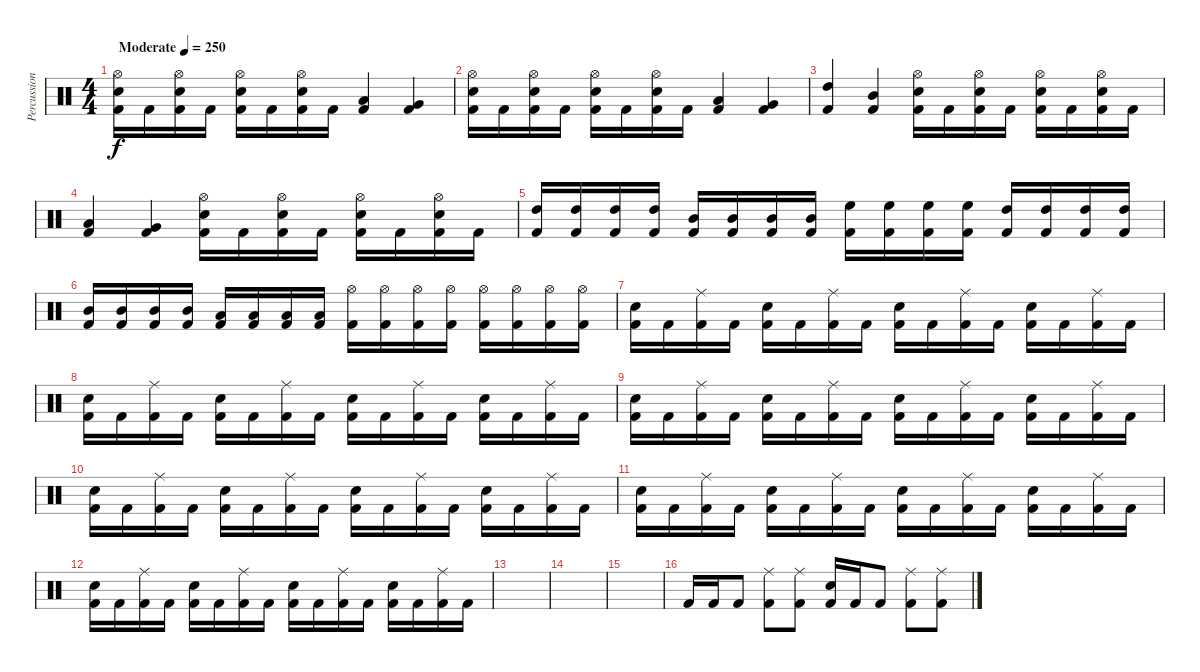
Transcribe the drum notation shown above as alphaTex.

\track ("Percussion" "Percussion") {instrument percussion}
\staff {score}
\articulation defaults
\ts (4 4)
\tempo (250 "Moderate")
\clef neutral
\ks c
("Hi-Hat (open)" "Electric Snare (hit)" "Kick (hit) 2").16{dy f} "Kick (hit) 2".16 ("Hi-Hat (open)" "Electric Snare (hit)" "Kick (hit) 2").16 "Kick (hit) 2".16 ("Hi-Hat (open)" "Electric Snare (hit)" "Kick (hit) 2").16 "Kick (hit) 2".16 ("Hi-Hat (open)" "Electric Snare (hit)" "Kick (hit) 2").16 "Kick (hit) 2".16 ("Low Tom (hit)" "Kick (hit) 2").4 ("Very Low Tom (hit)" "Kick (hit) 2").4 |
("Hi-Hat (open)" "Electric Snare (hit)" "Kick (hit) 2").16 "Kick (hit) 2".16 ("Hi-Hat (open)" "Electric Snare (hit)" "Kick (hit) 2").16 "Kick (hit) 2".16 ("Hi-Hat (open)" "Electric Snare (hit)" "Kick (hit) 2").16 "Kick (hit) 2".16 ("Hi-Hat (open)" "Electric Snare (hit)" "Kick (hit) 2").16 "Kick (hit) 2".16 ("Low Tom (hit)" "Kick (hit) 2").4 ("Very Low Tom (hit)" "Kick (hit) 2").4 |
("High Tom (hit)" "Kick (hit) 2").4 ("Mid Tom (hit)" "Kick (hit) 2").4 ("Hi-Hat (open)" "Electric Snare (hit)" "Kick (hit) 2").16 "Kick (hit) 2".16 ("Hi-Hat (open)" "Electric Snare (hit)" "Kick (hit) 2").16 "Kick (hit) 2".16 ("Hi-Hat (open)" "Electric Snare (hit)" "Kick (hit) 2").16 "Kick (hit) 2".16 ("Hi-Hat (open)" "Electric Snare (hit)" "Kick (hit) 2").16 "Kick (hit) 2".16 |
("Low Tom (hit)" "Kick (hit) 2").4 ("Very Low Tom (hit)" "Kick (hit) 2").4 ("Hi-Hat (open)" "Electric Snare (hit)" "Kick (hit) 2").16 "Kick (hit) 2".16 ("Hi-Hat (open)" "Electric Snare (hit)" "Kick (hit) 2").16 "Kick (hit) 2".16 ("Hi-Hat (open)" "Electric Snare (hit)" "Kick (hit) 2").16 "Kick (hit) 2".16 ("Hi-Hat (open)" "Electric Snare (hit)" "Kick (hit) 2").16 "Kick (hit) 2".16 |
("High Tom (hit)" "Kick (hit) 2").16 ("High Tom (hit)" "Kick (hit) 2").16 ("High Tom (hit)" "Kick (hit) 2").16 ("High Tom (hit)" "Kick (hit) 2").16 ("Mid Tom (hit)" "Kick (hit) 2").16 ("Mid Tom (hit)" "Kick (hit) 2").16 ("Mid Tom (hit)" "Kick (hit) 2").16 ("Mid Tom (hit)" "Kick (hit) 2").16 ("High Floor Tom (hit)" "Kick (hit) 2").16 ("High Floor Tom (hit)" "Kick (hit) 2").16 ("High Floor Tom (hit)" "Kick (hit) 2").16 ("High Floor Tom (hit)" "Kick (hit) 2").16 ("High Tom (hit)" "Kick (hit) 2").16 ("High Tom (hit)" "Kick (hit) 2").16 ("High Tom (hit)" "Kick (hit) 2").16 ("High Tom (hit)" "Kick (hit) 2").16 |
("Mid Tom (hit)" "Kick (hit) 2").16 ("Mid Tom (hit)" "Kick (hit) 2").16 ("Mid Tom (hit)" "Kick (hit) 2").16 ("Mid Tom (hit)" "Kick (hit) 2").16 ("Low Tom (hit)" "Kick (hit) 2").16 ("Low Tom (hit)" "Kick (hit) 2").16 ("Low Tom (hit)" "Kick (hit) 2").16 ("Low Tom (hit)" "Kick (hit) 2").16 ("Hi-Hat (open)" "Kick (hit) 2").16 ("Hi-Hat (open)" "Kick (hit) 2").16 ("Hi-Hat (open)" "Kick (hit) 2").16 ("Hi-Hat (open)" "Kick (hit) 2").16 ("Hi-Hat (open)" "Kick (hit) 2").16 ("Hi-Hat (open)" "Kick (hit) 2").16 ("Hi-Hat (open)" "Kick (hit) 2").16 ("Hi-Hat (open)" "Kick (hit) 2").16 |
("Electric Snare (hit)" "Kick (hit) 2").16 "Kick (hit) 2".16 ("Ride (middle)" "Kick (hit) 2").16 "Kick (hit) 2".16 ("Electric Snare (hit)" "Kick (hit) 2").16 "Kick (hit) 2".16 ("Ride (middle)" "Kick (hit) 2").16 "Kick (hit) 2".16 ("Electric Snare (hit)" "Kick (hit) 2").16 "Kick (hit) 2".16 ("Ride (middle)" "Kick (hit) 2").16 "Kick (hit) 2".16 ("Electric Snare (hit)" "Kick (hit) 2").16 "Kick (hit) 2".16 ("Ride (middle)" "Kick (hit) 2").16 "Kick (hit) 2".16 |
("Electric Snare (hit)" "Kick (hit) 2").16 "Kick (hit) 2".16 ("Ride (middle)" "Kick (hit) 2").16 "Kick (hit) 2".16 ("Electric Snare (hit)" "Kick (hit) 2").16 "Kick (hit) 2".16 ("Ride (middle)" "Kick (hit) 2").16 "Kick (hit) 2".16 ("Electric Snare (hit)" "Kick (hit) 2").16 "Kick (hit) 2".16 ("Ride (middle)" "Kick (hit) 2").16 "Kick (hit) 2".16 ("Electric Snare (hit)" "Kick (hit) 2").16 "Kick (hit) 2".16 ("Ride (middle)" "Kick (hit) 2").16 "Kick (hit) 2".16 |
("Electric Snare (hit)" "Kick (hit) 2").16 "Kick (hit) 2".16 ("Ride (middle)" "Kick (hit) 2").16 "Kick (hit) 2".16 ("Electric Snare (hit)" "Kick (hit) 2").16 "Kick (hit) 2".16 ("Ride (middle)" "Kick (hit) 2").16 "Kick (hit) 2".16 ("Electric Snare (hit)" "Kick (hit) 2").16 "Kick (hit) 2".16 ("Ride (middle)" "Kick (hit) 2").16 "Kick (hit) 2".16 ("Electric Snare (hit)" "Kick (hit) 2").16 "Kick (hit) 2".16 ("Ride (middle)" "Kick (hit) 2").16 "Kick (hit) 2".16 |
("Electric Snare (hit)" "Kick (hit) 2").16 "Kick (hit) 2".16 ("Ride (middle)" "Kick (hit) 2").16 "Kick (hit) 2".16 ("Electric Snare (hit)" "Kick (hit) 2").16 "Kick (hit) 2".16 ("Ride (middle)" "Kick (hit) 2").16 "Kick (hit) 2".16 ("Electric Snare (hit)" "Kick (hit) 2").16 "Kick (hit) 2".16 ("Ride (middle)" "Kick (hit) 2").16 "Kick (hit) 2".16 ("Electric Snare (hit)" "Kick (hit) 2").16 "Kick (hit) 2".16 ("Ride (middle)" "Kick (hit) 2").16 "Kick (hit) 2".16 |
("Electric Snare (hit)" "Kick (hit) 2").16 "Kick (hit) 2".16 ("Ride (middle)" "Kick (hit) 2").16 "Kick (hit) 2".16 ("Electric Snare (hit)" "Kick (hit) 2").16 "Kick (hit) 2".16 ("Ride (middle)" "Kick (hit) 2").16 "Kick (hit) 2".16 ("Electric Snare (hit)" "Kick (hit) 2").16 "Kick (hit) 2".16 ("Ride (middle)" "Kick (hit) 2").16 "Kick (hit) 2".16 ("Electric Snare (hit)" "Kick (hit) 2").16 "Kick (hit) 2".16 ("Ride (middle)" "Kick (hit) 2").16 "Kick (hit) 2".16 |
("Electric Snare (hit)" "Kick (hit) 2").16 "Kick (hit) 2".16 ("Ride (middle)" "Kick (hit) 2").16 "Kick (hit) 2".16 ("Electric Snare (hit)" "Kick (hit) 2").16 "Kick (hit) 2".16 ("Ride (middle)" "Kick (hit) 2").16 "Kick (hit) 2".16 ("Electric Snare (hit)" "Kick (hit) 2").16 "Kick (hit) 2".16 ("Ride (middle)" "Kick (hit) 2").16 "Kick (hit) 2".16 ("Electric Snare (hit)" "Kick (hit) 2").16 "Kick (hit) 2".16 ("Ride (middle)" "Kick (hit) 2").16 "Kick (hit) 2".16 |
|
|
|
"Kick (hit) 2".16 "Kick (hit) 2".16 "Kick (hit) 2".8 ("Ride (middle)" "Kick (hit) 2").8 ("Ride (middle)" "Kick (hit) 2").8 ("Electric Snare (hit)" "Kick (hit) 2").16 "Kick (hit) 2".16 "Kick (hit) 2".8 ("Ride (middle)" "Kick (hit) 2").8 ("Ride (middle)" "Kick (hit) 2").8
